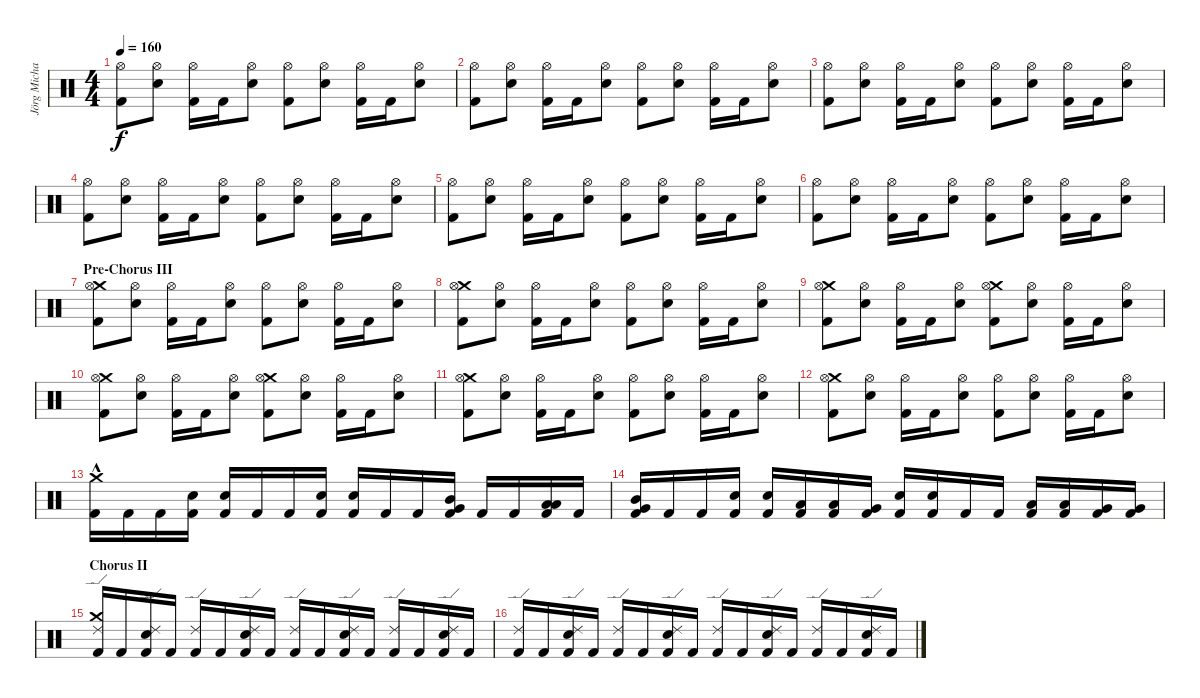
\track ("Jörg Michael" "Jörg Micha") {instrument percussion}
\staff {score}
\articulation defaults
\ts (4 4)
\tempo 160
\clef neutral
\ks c
("Hi-Hat (open)" "Kick (hit) 2").8{dy f} ("Hi-Hat (open)" "Electric Snare (hit)").8 ("Hi-Hat (open)" "Kick (hit) 2").16 "Kick (hit) 2".16 ("Hi-Hat (open)" "Electric Snare (hit)").8 ("Hi-Hat (open)" "Kick (hit) 2").8 ("Hi-Hat (open)" "Electric Snare (hit)").8 ("Hi-Hat (open)" "Kick (hit) 2").16 "Kick (hit) 2".16 ("Hi-Hat (open)" "Electric Snare (hit)").8 |
("Hi-Hat (open)" "Kick (hit) 2").8 ("Hi-Hat (open)" "Electric Snare (hit)").8 ("Hi-Hat (open)" "Kick (hit) 2").16 "Kick (hit) 2".16 ("Hi-Hat (open)" "Electric Snare (hit)").8 ("Hi-Hat (open)" "Kick (hit) 2").8 ("Hi-Hat (open)" "Electric Snare (hit)").8 ("Hi-Hat (open)" "Kick (hit) 2").16 "Kick (hit) 2".16 ("Hi-Hat (open)" "Electric Snare (hit)").8 |
("Hi-Hat (open)" "Kick (hit) 2").8 ("Hi-Hat (open)" "Electric Snare (hit)").8 ("Hi-Hat (open)" "Kick (hit) 2").16 "Kick (hit) 2".16 ("Hi-Hat (open)" "Electric Snare (hit)").8 ("Hi-Hat (open)" "Kick (hit) 2").8 ("Hi-Hat (open)" "Electric Snare (hit)").8 ("Hi-Hat (open)" "Kick (hit) 2").16 "Kick (hit) 2".16 ("Hi-Hat (open)" "Electric Snare (hit)").8 |
("Hi-Hat (open)" "Kick (hit) 2").8 ("Hi-Hat (open)" "Electric Snare (hit)").8 ("Hi-Hat (open)" "Kick (hit) 2").16 "Kick (hit) 2".16 ("Hi-Hat (open)" "Electric Snare (hit)").8 ("Hi-Hat (open)" "Kick (hit) 2").8 ("Hi-Hat (open)" "Electric Snare (hit)").8 ("Hi-Hat (open)" "Kick (hit) 2").16 "Kick (hit) 2".16 ("Hi-Hat (open)" "Electric Snare (hit)").8 |
("Hi-Hat (open)" "Kick (hit) 2").8 ("Hi-Hat (open)" "Electric Snare (hit)").8 ("Hi-Hat (open)" "Kick (hit) 2").16 "Kick (hit) 2".16 ("Hi-Hat (open)" "Electric Snare (hit)").8 ("Hi-Hat (open)" "Kick (hit) 2").8 ("Hi-Hat (open)" "Electric Snare (hit)").8 ("Hi-Hat (open)" "Kick (hit) 2").16 "Kick (hit) 2".16 ("Hi-Hat (open)" "Electric Snare (hit)").8 |
("Hi-Hat (open)" "Kick (hit) 2").8 ("Hi-Hat (open)" "Electric Snare (hit)").8 ("Hi-Hat (open)" "Kick (hit) 2").16 "Kick (hit) 2".16 ("Hi-Hat (open)" "Electric Snare (hit)").8 ("Hi-Hat (open)" "Kick (hit) 2").8 ("Hi-Hat (open)" "Electric Snare (hit)").8 ("Hi-Hat (open)" "Kick (hit) 2").16 "Kick (hit) 2".16 ("Hi-Hat (open)" "Electric Snare (hit)").8 |
\section ("" "Pre-Chorus III")
("Crash medium (hit)" "Hi-Hat (open)" "Kick (hit) 2").8 ("Hi-Hat (open)" "Electric Snare (hit)").8 ("Hi-Hat (open)" "Kick (hit) 2").16 "Kick (hit) 2".16 ("Hi-Hat (open)" "Electric Snare (hit)").8 ("Hi-Hat (open)" "Kick (hit) 2").8 ("Hi-Hat (open)" "Electric Snare (hit)").8 ("Hi-Hat (open)" "Kick (hit) 2").16 "Kick (hit) 2".16 ("Hi-Hat (open)" "Electric Snare (hit)").8 |
("Crash medium (hit)" "Hi-Hat (open)" "Kick (hit) 2").8 ("Hi-Hat (open)" "Electric Snare (hit)").8 ("Hi-Hat (open)" "Kick (hit) 2").16 "Kick (hit) 2".16 ("Hi-Hat (open)" "Electric Snare (hit)").8 ("Hi-Hat (open)" "Kick (hit) 2").8 ("Hi-Hat (open)" "Electric Snare (hit)").8 ("Hi-Hat (open)" "Kick (hit) 2").16 "Kick (hit) 2".16 ("Hi-Hat (open)" "Electric Snare (hit)").8 |
("Crash medium (hit)" "Hi-Hat (open)" "Kick (hit) 2").8 ("Hi-Hat (open)" "Electric Snare (hit)").8 ("Hi-Hat (open)" "Kick (hit) 2").16 "Kick (hit) 2".16 ("Hi-Hat (open)" "Electric Snare (hit)").8 ("Crash medium (hit)" "Hi-Hat (open)" "Kick (hit) 2").8 ("Hi-Hat (open)" "Electric Snare (hit)").8 ("Hi-Hat (open)" "Kick (hit) 2").16 "Kick (hit) 2".16 ("Hi-Hat (open)" "Electric Snare (hit)").8 |
("Crash medium (hit)" "Hi-Hat (open)" "Kick (hit) 2").8 ("Hi-Hat (open)" "Electric Snare (hit)").8 ("Hi-Hat (open)" "Kick (hit) 2").16 "Kick (hit) 2".16 ("Hi-Hat (open)" "Electric Snare (hit)").8 ("Crash medium (hit)" "Hi-Hat (open)" "Kick (hit) 2").8 ("Hi-Hat (open)" "Electric Snare (hit)").8 ("Hi-Hat (open)" "Kick (hit) 2").16 "Kick (hit) 2".16 ("Hi-Hat (open)" "Electric Snare (hit)").8 |
("Crash medium (hit)" "Hi-Hat (open)" "Kick (hit) 2").8 ("Hi-Hat (open)" "Electric Snare (hit)").8 ("Hi-Hat (open)" "Kick (hit) 2").16 "Kick (hit) 2".16 ("Hi-Hat (open)" "Electric Snare (hit)").8 ("Hi-Hat (open)" "Kick (hit) 2").8 ("Hi-Hat (open)" "Electric Snare (hit)").8 ("Hi-Hat (open)" "Kick (hit) 2").16 "Kick (hit) 2".16 ("Hi-Hat (open)" "Electric Snare (hit)").8 |
("Crash medium (hit)" "Hi-Hat (open)" "Kick (hit) 2").8 ("Hi-Hat (open)" "Electric Snare (hit)").8 ("Hi-Hat (open)" "Kick (hit) 2").16 "Kick (hit) 2".16 ("Hi-Hat (open)" "Electric Snare (hit)").8 ("Hi-Hat (open)" "Kick (hit) 2").8 ("Hi-Hat (open)" "Electric Snare (hit)").8 ("Hi-Hat (open)" "Kick (hit) 2").16 "Kick (hit) 2".16 ("Hi-Hat (open)" "Electric Snare (hit)").8 |
("Kick (hit) 2" "Crash medium (hit)"{hac}).16 "Kick (hit) 2".16 "Kick (hit) 2".16 ("Electric Snare (hit)" "Kick (hit) 2").16 ("Electric Snare (hit)" "Kick (hit) 2").16 "Kick (hit) 2".16 "Kick (hit) 2".16 ("Electric Snare (hit)" "Kick (hit) 2").16 ("Electric Snare (hit)" "Kick (hit) 2").16 "Kick (hit) 2".16 "Kick (hit) 2".16 ("Mid Tom (hit)" "Very Low Tom (hit)" "Kick (hit) 2").16 "Kick (hit) 2".16 "Kick (hit) 2".16 ("Low Floor Tom (hit)" "Low Tom (hit)" "Kick (hit) 2").16 "Kick (hit) 2".16 |
("Mid Tom (hit)" "Very Low Tom (hit)" "Kick (hit) 2").16 "Kick (hit) 2".16 "Kick (hit) 2".16 ("Electric Snare (hit)" "Kick (hit) 2").16 ("Electric Snare (hit)" "Kick (hit) 2").16 ("Low Tom (hit)" "Kick (hit) 2").16 ("Low Tom (hit)" "Kick (hit) 2").16 ("Very Low Tom (hit)" "Kick (hit) 2").16 ("Electric Snare (hit)" "Kick (hit) 2").16 ("Electric Snare (hit)" "Kick (hit) 2").16 "Kick (hit) 2".16 "Kick (hit) 2".16 ("Low Tom (hit)" "Kick (hit) 2").16 ("Low Tom (hit)" "Kick (hit) 2").16 ("Very Low Tom (hit)" "Kick (hit) 2").16 ("Very Low Tom (hit)" "Kick (hit) 2").16 |
\section ("" "Chorus II")
("Crash medium (hit)" "Ride (edge) 2" "Kick (hit) 2").16 "Kick (hit) 2".16 ("Electric Snare (hit)" "Ride (edge) 2" "Kick (hit) 2").16 "Kick (hit) 2".16 ("Ride (edge) 2" "Kick (hit) 2").16 "Kick (hit) 2".16 ("Electric Snare (hit)" "Ride (edge) 2" "Kick (hit) 2").16 "Kick (hit) 2".16 ("Ride (edge) 2" "Kick (hit) 2").16 "Kick (hit) 2".16 ("Electric Snare (hit)" "Ride (edge) 2" "Kick (hit) 2").16 "Kick (hit) 2".16 ("Ride (edge) 2" "Kick (hit) 2").16 "Kick (hit) 2".16 ("Electric Snare (hit)" "Ride (edge) 2" "Kick (hit) 2").16 "Kick (hit) 2".16 |
("Ride (edge) 2" "Kick (hit) 2").16 "Kick (hit) 2".16 ("Electric Snare (hit)" "Ride (edge) 2" "Kick (hit) 2").16 "Kick (hit) 2".16 ("Ride (edge) 2" "Kick (hit) 2").16 "Kick (hit) 2".16 ("Electric Snare (hit)" "Ride (edge) 2" "Kick (hit) 2").16 "Kick (hit) 2".16 ("Ride (edge) 2" "Kick (hit) 2").16 "Kick (hit) 2".16 ("Electric Snare (hit)" "Ride (edge) 2" "Kick (hit) 2").16 "Kick (hit) 2".16 ("Ride (edge) 2" "Kick (hit) 2").16 "Kick (hit) 2".16 ("Electric Snare (hit)" "Ride (edge) 2" "Kick (hit) 2").16 "Kick (hit) 2".16
